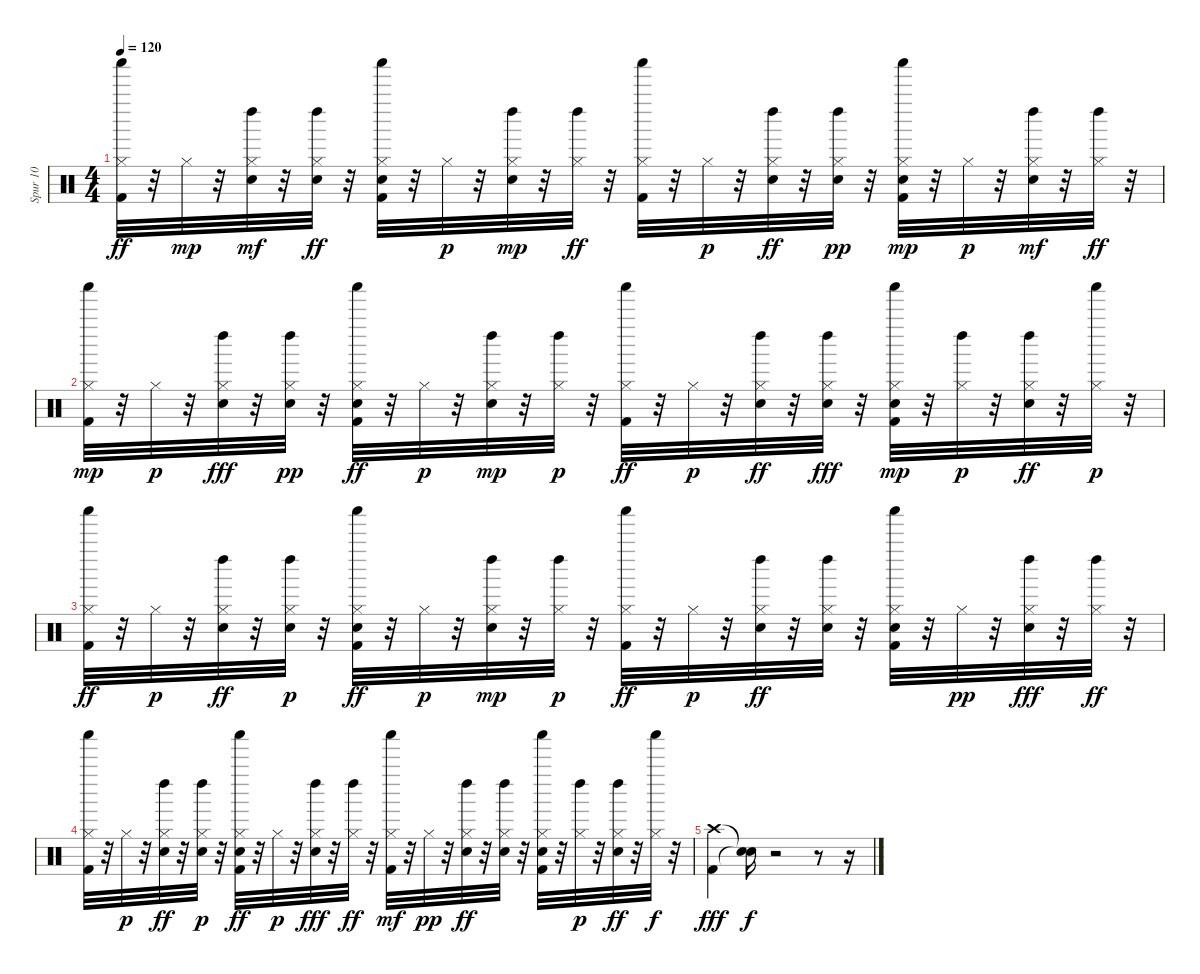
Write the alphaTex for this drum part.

\track ("Spur 10" "Spur 10") {instrument percussion}
\staff {score}
\articulation defaults
\ts (4 4)
\tempo 120
\clef neutral
\ks c
("Shaker (hit)" "Hi-Hat (closed)" "Kick (hit) 2").32{dy ff} r.32 "Hi-Hat (closed)".32{dy mp} r.32 ("Electric Snare (hit)" "Hi-Hat (closed)" "Left Maraca (hit)").32{dy mf} r.32 ("Left Maraca (hit)" "Hi-Hat (closed)" "Electric Snare (hit)").32{dy ff} r.32 ("Shaker (hit)" "Snare (hit) 2" "Hi-Hat (closed)" "Kick (hit) 2").32 r.32 "Hi-Hat (closed)".32{dy p} r.32 ("Hi-Hat (closed)" "Electric Snare (hit)" "Left Maraca (hit)").32{dy mp} r.32 ("Hi-Hat (closed)" "Left Maraca (hit)").32{dy ff} r.32 ("Shaker (hit)" "Hi-Hat (closed)" "Kick (hit) 2").32 r.32 "Hi-Hat (closed)".32{dy p} r.32 ("Electric Snare (hit)" "Hi-Hat (closed)" "Left Maraca (hit)").32{dy ff} r.32 ("Left Maraca (hit)" "Electric Snare (hit)" "Hi-Hat (closed)").32{dy pp} r.32 ("Snare (hit) 2" "Kick (hit) 2" "Hi-Hat (closed)" "Shaker (hit)").32{dy mp} r.32 "Hi-Hat (closed)".32{dy p} r.32 ("Electric Snare (hit)" "Hi-Hat (closed)" "Left Maraca (hit)").32{dy mf} r.32 ("Hi-Hat (closed)" "Left Maraca (hit)").32{dy ff} r.32 |
("Kick (hit) 2" "Shaker (hit)" "Hi-Hat (closed)").32{dy mp} r.32 "Hi-Hat (closed)".32{dy p} r.32 ("Left Maraca (hit)" "Hi-Hat (closed)" "Electric Snare (hit)").32{dy fff} r.32 ("Left Maraca (hit)" "Hi-Hat (closed)" "Electric Snare (hit)").32{dy pp} r.32 ("Snare (hit) 2" "Hi-Hat (closed)" "Shaker (hit)" "Kick (hit) 2").32{dy ff} r.32 "Hi-Hat (closed)".32{dy p} r.32 ("Electric Snare (hit)" "Hi-Hat (closed)" "Left Maraca (hit)").32{dy mp} r.32 ("Left Maraca (hit)" "Hi-Hat (closed)").32{dy p} r.32 ("Hi-Hat (closed)" "Shaker (hit)" "Kick (hit) 2").32{dy ff} r.32 "Hi-Hat (closed)".32{dy p} r.32 ("Electric Snare (hit)" "Left Maraca (hit)" "Hi-Hat (closed)").32{dy ff} r.32 ("Left Maraca (hit)" "Hi-Hat (closed)" "Electric Snare (hit)").32{dy fff} r.32 ("Shaker (hit)" "Kick (hit) 2" "Snare (hit) 2" "Hi-Hat (closed)").32{dy mp} r.32 ("Hi-Hat (closed)" "Left Maraca (hit)").32{dy p} r.32 ("Hi-Hat (closed)" "Electric Snare (hit)" "Left Maraca (hit)").32{dy ff} r.32 ("Hi-Hat (closed)" "Shaker (hit)").32{dy p} r.32 |
("Shaker (hit)" "Hi-Hat (closed)" "Kick (hit) 2").32{dy ff} r.32 "Hi-Hat (closed)".32{dy p} r.32 ("Electric Snare (hit)" "Left Maraca (hit)" "Hi-Hat (closed)").32{dy ff} r.32 ("Electric Snare (hit)" "Hi-Hat (closed)" "Left Maraca (hit)").32{dy p} r.32 ("Kick (hit) 2" "Hi-Hat (closed)" "Shaker (hit)" "Snare (hit) 2").32{dy ff} r.32 "Hi-Hat (closed)".32{dy p} r.32 ("Hi-Hat (closed)" "Electric Snare (hit)" "Left Maraca (hit)").32{dy mp} r.32 ("Left Maraca (hit)" "Hi-Hat (closed)").32{dy p} r.32 ("Shaker (hit)" "Kick (hit) 2" "Hi-Hat (closed)").32{dy ff} r.32 "Hi-Hat (closed)".32{dy p} r.32 ("Electric Snare (hit)" "Left Maraca (hit)" "Hi-Hat (closed)").32{dy ff} r.32 ("Left Maraca (hit)" "Hi-Hat (closed)" "Electric Snare (hit)").32 r.32 ("Hi-Hat (closed)" "Snare (hit) 2" "Kick (hit) 2" "Shaker (hit)").32 r.32 "Hi-Hat (closed)".32{dy pp} r.32 ("Hi-Hat (closed)" "Left Maraca (hit)" "Electric Snare (hit)").32{dy fff} r.32 ("Hi-Hat (closed)" "Left Maraca (hit)").32{dy ff} r.32 |
("Hi-Hat (closed)" "Kick (hit) 2" "Shaker (hit)").32 r.32 "Hi-Hat (closed)".32{dy p} r.32 ("Electric Snare (hit)" "Hi-Hat (closed)" "Left Maraca (hit)").32{dy ff} r.32 ("Electric Snare (hit)" "Left Maraca (hit)" "Hi-Hat (closed)").32{dy p} r.32 ("Shaker (hit)" "Hi-Hat (closed)" "Snare (hit) 2" "Kick (hit) 2").32{dy ff} r.32 "Hi-Hat (closed)".32{dy p} r.32 ("Hi-Hat (closed)" "Left Maraca (hit)" "Electric Snare (hit)").32{dy fff} r.32 ("Hi-Hat (closed)" "Left Maraca (hit)").32{dy ff} r.32 ("Shaker (hit)" "Kick (hit) 2" "Hi-Hat (closed)").32{dy mf} r.32 "Hi-Hat (closed)".32{dy pp} r.32 ("Electric Snare (hit)" "Hi-Hat (closed)" "Left Maraca (hit)").32{dy ff} r.32 ("Hi-Hat (closed)" "Electric Snare (hit)" "Left Maraca (hit)").32 r.32 ("Kick (hit) 2" "Shaker (hit)" "Hi-Hat (closed)" "Snare (hit) 2").32 r.32 ("Hi-Hat (closed)" "Left Maraca (hit)").32{dy p} r.32 ("Electric Snare (hit)" "Left Maraca (hit)" "Hi-Hat (closed)").32{dy ff} r.32 ("Hi-Hat (closed)" "Shaker (hit)").32{dy f} r.32 |
("Kick (hit) 2" "Crash high (hit)").4{dy fff} ("Snare (hit)"{t} "Snare (hit)"{t}).16{dy f} r.2 r.8 r.16
